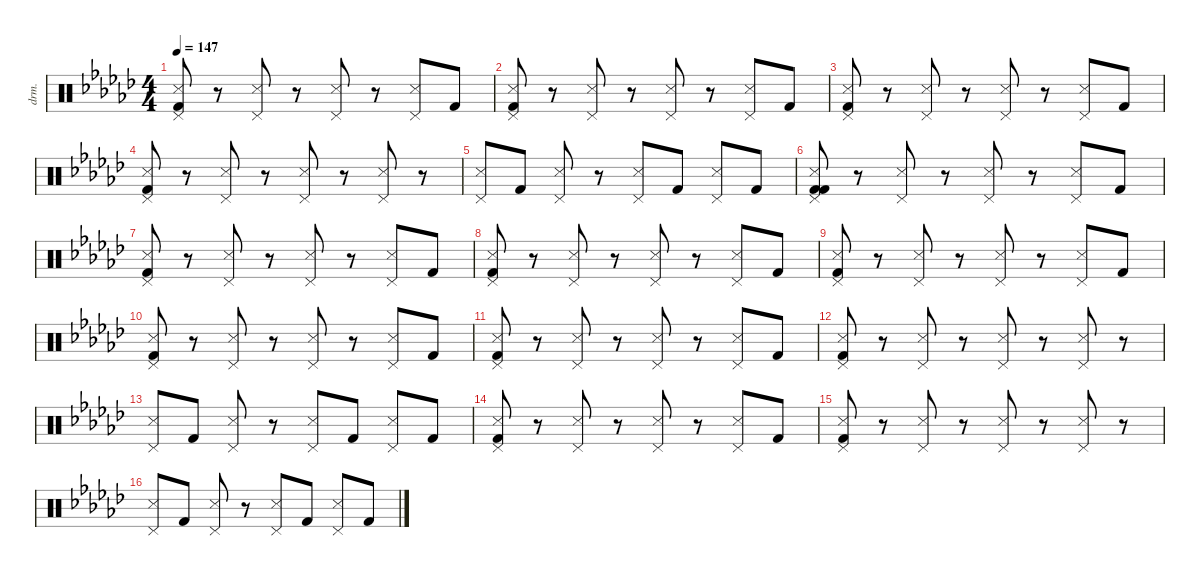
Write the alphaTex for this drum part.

\defaultSystemsLayout 4
\hideDynamics
\bracketExtendMode nobrackets
\otherSystemsTrackNameOrientation horizontal
\track ("Drums" "drm.") {instrument percussion}
\staff {score}
\articulation defaults
\ts (4 4)
\tempo 147
\clef neutral
\ks ebminor
("Pedal Hi-Hat (hit)"{acc forcenatural} "Kick (hit) 2"{acc forcenatural} "Snare (side stick) 3"{acc forcenatural}).8{dy f beam Up} r.8{beam Up} ("Pedal Hi-Hat (hit)"{acc forcenatural} "Snare (side stick) 3"{acc forcenatural}).8{beam Up} r.8{beam Up} ("Pedal Hi-Hat (hit)"{acc forcenatural} "Snare (side stick) 3"{acc forcenatural}).8{beam Up} r.8{beam Up} ("Pedal Hi-Hat (hit)"{acc forcenatural} "Snare (side stick) 3"{acc forcenatural}).8{beam Up} "Kick (hit) 2"{acc forcenatural}.8{beam Up} |
("Pedal Hi-Hat (hit)"{acc forcenatural} "Kick (hit) 2"{acc forcenatural} "Snare (side stick) 3"{acc forcenatural}).8{beam Up} r.8{beam Up} ("Pedal Hi-Hat (hit)"{acc forcenatural} "Snare (side stick) 3"{acc forcenatural}).8{beam Up} r.8{beam Up} ("Pedal Hi-Hat (hit)"{acc forcenatural} "Snare (side stick) 3"{acc forcenatural}).8{beam Up} r.8{beam Up} ("Pedal Hi-Hat (hit)"{acc forcenatural} "Snare (side stick) 3"{acc forcenatural}).8{beam Up} "Kick (hit) 2"{acc forcenatural}.8{beam Up} |
("Pedal Hi-Hat (hit)"{acc forcenatural} "Kick (hit) 2"{acc forcenatural} "Snare (side stick) 3"{acc forcenatural}).8{beam Up} r.8{beam Up} ("Pedal Hi-Hat (hit)"{acc forcenatural} "Snare (side stick) 3"{acc forcenatural}).8{beam Up} r.8{beam Up} ("Pedal Hi-Hat (hit)"{acc forcenatural} "Snare (side stick) 3"{acc forcenatural}).8{beam Up} r.8{beam Up} ("Pedal Hi-Hat (hit)"{acc forcenatural} "Snare (side stick) 3"{acc forcenatural}).8{beam Up} "Kick (hit) 2"{acc forcenatural}.8{beam Up} |
("Pedal Hi-Hat (hit)"{acc forcenatural} "Kick (hit) 2"{acc forcenatural} "Snare (side stick) 3"{acc forcenatural}).8{beam Up} r.8{beam Up} ("Pedal Hi-Hat (hit)"{acc forcenatural} "Snare (side stick) 3"{acc forcenatural}).8{beam Up} r.8{beam Up} ("Pedal Hi-Hat (hit)"{acc forcenatural} "Snare (side stick) 3"{acc forcenatural}).8{beam Up} r.8{beam Up} ("Pedal Hi-Hat (hit)"{acc forcenatural} "Snare (side stick) 3"{acc forcenatural}).8{beam Up} r.8{beam Up} |
("Pedal Hi-Hat (hit)"{acc forcenatural} "Snare (side stick) 3"{acc forcenatural}).8{beam Up} "Kick (hit) 2"{acc forcenatural}.8{beam Up} ("Pedal Hi-Hat (hit)"{acc forcenatural} "Snare (side stick) 3"{acc forcenatural}).8{beam Up} r.8{beam Up} ("Pedal Hi-Hat (hit)"{acc forcenatural} "Snare (side stick) 3"{acc forcenatural}).8{beam Up} "Kick (hit) 2"{acc forcenatural}.8{beam Up} ("Pedal Hi-Hat (hit)"{acc forcenatural} "Snare (side stick) 3"{acc forcenatural}).8{beam Up} "Kick (hit) 2"{acc forcenatural}.8{beam Up} |
("Pedal Hi-Hat (hit)"{acc forcenatural} "Kick (hit) 2"{acc forcenatural} "Kick (hit) 2"{acc forcenatural} "Snare (side stick) 3"{acc forcenatural}).8{beam Up} r.8{beam Up} ("Pedal Hi-Hat (hit)"{acc forcenatural} "Snare (side stick) 3"{acc forcenatural}).8{beam Up} r.8{beam Up} ("Pedal Hi-Hat (hit)"{acc forcenatural} "Snare (side stick) 3"{acc forcenatural}).8{beam Up} r.8{beam Up} ("Pedal Hi-Hat (hit)"{acc forcenatural} "Snare (side stick) 3"{acc forcenatural}).8{beam Up} "Kick (hit) 2"{acc forcenatural}.8{beam Up} |
("Pedal Hi-Hat (hit)"{acc forcenatural} "Kick (hit) 2"{acc forcenatural} "Snare (side stick) 3"{acc forcenatural}).8{beam Up} r.8{beam Up} ("Pedal Hi-Hat (hit)"{acc forcenatural} "Snare (side stick) 3"{acc forcenatural}).8{beam Up} r.8{beam Up} ("Pedal Hi-Hat (hit)"{acc forcenatural} "Snare (side stick) 3"{acc forcenatural}).8{beam Up} r.8{beam Up} ("Pedal Hi-Hat (hit)"{acc forcenatural} "Snare (side stick) 3"{acc forcenatural}).8{beam Up} "Kick (hit) 2"{acc forcenatural}.8{beam Up} |
("Pedal Hi-Hat (hit)"{acc forcenatural} "Kick (hit) 2"{acc forcenatural} "Snare (side stick) 3"{acc forcenatural}).8{beam Up} r.8{beam Up} ("Pedal Hi-Hat (hit)"{acc forcenatural} "Snare (side stick) 3"{acc forcenatural}).8{beam Up} r.8{beam Up} ("Pedal Hi-Hat (hit)"{acc forcenatural} "Snare (side stick) 3"{acc forcenatural}).8{beam Up} r.8{beam Up} ("Pedal Hi-Hat (hit)"{acc forcenatural} "Snare (side stick) 3"{acc forcenatural}).8{beam Up} "Kick (hit) 2"{acc forcenatural}.8{beam Up} |
("Pedal Hi-Hat (hit)"{acc forcenatural} "Kick (hit) 2"{acc forcenatural} "Snare (side stick) 3"{acc forcenatural}).8{beam Up} r.8{beam Up} ("Pedal Hi-Hat (hit)"{acc forcenatural} "Snare (side stick) 3"{acc forcenatural}).8{beam Up} r.8{beam Up} ("Pedal Hi-Hat (hit)"{acc forcenatural} "Snare (side stick) 3"{acc forcenatural}).8{beam Up} r.8{beam Up} ("Pedal Hi-Hat (hit)"{acc forcenatural} "Snare (side stick) 3"{acc forcenatural}).8{beam Up} "Kick (hit) 2"{acc forcenatural}.8{beam Up} |
("Pedal Hi-Hat (hit)"{acc forcenatural} "Kick (hit) 2"{acc forcenatural} "Snare (side stick) 3"{acc forcenatural}).8{beam Up} r.8{beam Up} ("Pedal Hi-Hat (hit)"{acc forcenatural} "Snare (side stick) 3"{acc forcenatural}).8{beam Up} r.8{beam Up} ("Pedal Hi-Hat (hit)"{acc forcenatural} "Snare (side stick) 3"{acc forcenatural}).8{beam Up} r.8{beam Up} ("Pedal Hi-Hat (hit)"{acc forcenatural} "Snare (side stick) 3"{acc forcenatural}).8{beam Up} "Kick (hit) 2"{acc forcenatural}.8{beam Up} |
("Pedal Hi-Hat (hit)"{acc forcenatural} "Kick (hit) 2"{acc forcenatural} "Snare (side stick) 3"{acc forcenatural}).8{beam Up} r.8{beam Up} ("Pedal Hi-Hat (hit)"{acc forcenatural} "Snare (side stick) 3"{acc forcenatural}).8{beam Up} r.8{beam Up} ("Pedal Hi-Hat (hit)"{acc forcenatural} "Snare (side stick) 3"{acc forcenatural}).8{beam Up} r.8{beam Up} ("Pedal Hi-Hat (hit)"{acc forcenatural} "Snare (side stick) 3"{acc forcenatural}).8{beam Up} "Kick (hit) 2"{acc forcenatural}.8{beam Up} |
("Pedal Hi-Hat (hit)"{acc forcenatural} "Kick (hit) 2"{acc forcenatural} "Snare (side stick) 3"{acc forcenatural}).8{beam Up} r.8{beam Up} ("Pedal Hi-Hat (hit)"{acc forcenatural} "Snare (side stick) 3"{acc forcenatural}).8{beam Up} r.8{beam Up} ("Pedal Hi-Hat (hit)"{acc forcenatural} "Snare (side stick) 3"{acc forcenatural}).8{beam Up} r.8{beam Up} ("Pedal Hi-Hat (hit)"{acc forcenatural} "Snare (side stick) 3"{acc forcenatural}).8{beam Up} r.8{beam Up} |
("Pedal Hi-Hat (hit)"{acc forcenatural} "Snare (side stick) 3"{acc forcenatural}).8{beam Up} "Kick (hit) 2"{acc forcenatural}.8{beam Up} ("Pedal Hi-Hat (hit)"{acc forcenatural} "Snare (side stick) 3"{acc forcenatural}).8{beam Up} r.8{beam Up} ("Pedal Hi-Hat (hit)"{acc forcenatural} "Snare (side stick) 3"{acc forcenatural}).8{beam Up} "Kick (hit) 2"{acc forcenatural}.8{beam Up} ("Pedal Hi-Hat (hit)"{acc forcenatural} "Snare (side stick) 3"{acc forcenatural}).8{beam Up} "Kick (hit) 2"{acc forcenatural}.8{beam Up} |
("Pedal Hi-Hat (hit)"{acc forcenatural} "Kick (hit) 2"{acc forcenatural} "Snare (side stick) 3"{acc forcenatural}).8{beam Up} r.8{beam Up} ("Pedal Hi-Hat (hit)"{acc forcenatural} "Snare (side stick) 3"{acc forcenatural}).8{beam Up} r.8{beam Up} ("Pedal Hi-Hat (hit)"{acc forcenatural} "Snare (side stick) 3"{acc forcenatural}).8{beam Up} r.8{beam Up} ("Pedal Hi-Hat (hit)"{acc forcenatural} "Snare (side stick) 3"{acc forcenatural}).8{beam Up} "Kick (hit) 2"{acc forcenatural}.8{beam Up} |
("Pedal Hi-Hat (hit)"{acc forcenatural} "Kick (hit) 2"{acc forcenatural} "Snare (side stick) 3"{acc forcenatural}).8{beam Up} r.8{beam Up} ("Pedal Hi-Hat (hit)"{acc forcenatural} "Snare (side stick) 3"{acc forcenatural}).8{beam Up} r.8{beam Up} ("Pedal Hi-Hat (hit)"{acc forcenatural} "Snare (side stick) 3"{acc forcenatural}).8{beam Up} r.8{beam Up} ("Pedal Hi-Hat (hit)"{acc forcenatural} "Snare (side stick) 3"{acc forcenatural}).8{beam Up} r.8{beam Up} |
("Pedal Hi-Hat (hit)"{acc forcenatural} "Snare (side stick) 3"{acc forcenatural}).8{beam Up} "Kick (hit) 2"{acc forcenatural}.8{beam Up} ("Pedal Hi-Hat (hit)"{acc forcenatural} "Snare (side stick) 3"{acc forcenatural}).8{beam Up} r.8{beam Up} ("Pedal Hi-Hat (hit)"{acc forcenatural} "Snare (side stick) 3"{acc forcenatural}).8{beam Up} "Kick (hit) 2"{acc forcenatural}.8{beam Up} ("Pedal Hi-Hat (hit)"{acc forcenatural} "Snare (side stick) 3"{acc forcenatural}).8{beam Up} "Kick (hit) 2"{acc forcenatural}.8{beam Up}
